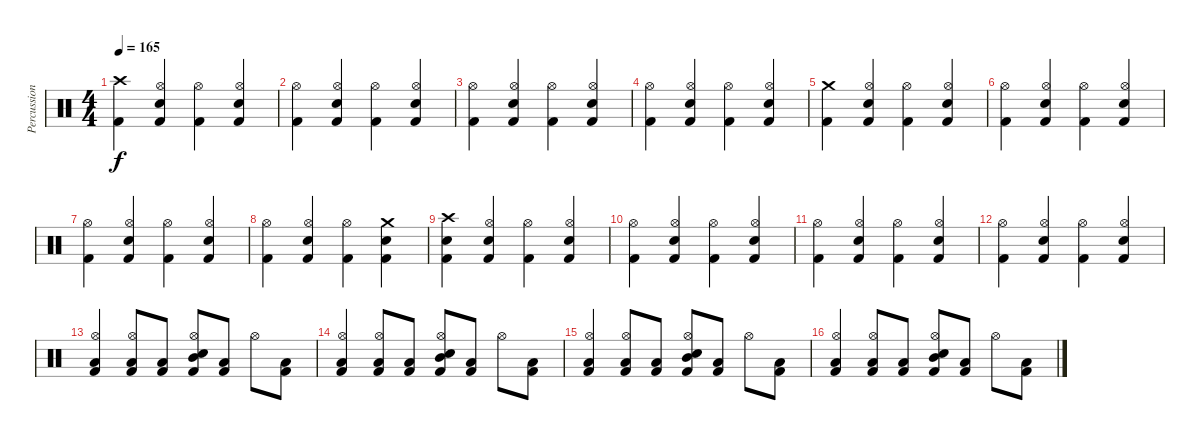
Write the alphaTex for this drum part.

\track ("Percussions" "Percussion") {instrument percussion}
\staff {score}
\articulation defaults
\ts (4 4)
\tempo 165
\clef neutral
\ks c
("Crash high (hit)" "Kick (hit) 2").4{dy f} ("Hi-Hat (open)" "Electric Snare (hit)" "Kick (hit) 2").4 ("Hi-Hat (open)" "Kick (hit) 2").4 ("Hi-Hat (open)" "Electric Snare (hit)" "Kick (hit) 2").4 |
("Hi-Hat (open)" "Kick (hit) 2").4 ("Hi-Hat (open)" "Electric Snare (hit)" "Kick (hit) 2").4 ("Hi-Hat (open)" "Kick (hit) 2").4 ("Hi-Hat (open)" "Electric Snare (hit)" "Kick (hit) 2").4 |
("Hi-Hat (open)" "Kick (hit) 2").4 ("Hi-Hat (open)" "Electric Snare (hit)" "Kick (hit) 2").4 ("Hi-Hat (open)" "Kick (hit) 2").4 ("Hi-Hat (open)" "Electric Snare (hit)" "Kick (hit) 2").4 |
("Hi-Hat (open)" "Kick (hit) 2").4 ("Hi-Hat (open)" "Electric Snare (hit)" "Kick (hit) 2").4 ("Hi-Hat (open)" "Kick (hit) 2").4 ("Hi-Hat (open)" "Electric Snare (hit)" "Kick (hit) 2").4 |
("Crash medium (hit)" "Kick (hit) 2").4 ("Hi-Hat (open)" "Electric Snare (hit)" "Kick (hit) 2").4 ("Hi-Hat (open)" "Kick (hit) 2").4 ("Hi-Hat (open)" "Electric Snare (hit)" "Kick (hit) 2").4 |
("Hi-Hat (open)" "Kick (hit) 2").4 ("Hi-Hat (open)" "Electric Snare (hit)" "Kick (hit) 2").4 ("Hi-Hat (open)" "Kick (hit) 2").4 ("Hi-Hat (open)" "Electric Snare (hit)" "Kick (hit) 2").4 |
("Hi-Hat (open)" "Kick (hit) 2").4 ("Hi-Hat (open)" "Electric Snare (hit)" "Kick (hit) 2").4 ("Hi-Hat (open)" "Kick (hit) 2").4 ("Hi-Hat (open)" "Electric Snare (hit)" "Kick (hit) 2").4 |
("Hi-Hat (open)" "Kick (hit) 2").4 ("Hi-Hat (open)" "Electric Snare (hit)" "Kick (hit) 2").4 ("Hi-Hat (open)" "Kick (hit) 2").4 ("Crash medium (hit)" "Electric Snare (hit)" "Kick (hit) 2").4 |
("Crash high (hit)" "Electric Snare (hit)" "Kick (hit) 2").4 ("Hi-Hat (open)" "Electric Snare (hit)" "Kick (hit) 2").4 ("Hi-Hat (open)" "Kick (hit) 2").4 ("Hi-Hat (open)" "Electric Snare (hit)" "Kick (hit) 2").4 |
("Hi-Hat (open)" "Kick (hit) 2").4 ("Hi-Hat (open)" "Electric Snare (hit)" "Kick (hit) 2").4 ("Hi-Hat (open)" "Kick (hit) 2").4 ("Hi-Hat (open)" "Electric Snare (hit)" "Kick (hit) 2").4 |
("Hi-Hat (open)" "Kick (hit) 2").4 ("Hi-Hat (open)" "Electric Snare (hit)" "Kick (hit) 2").4 ("Hi-Hat (open)" "Kick (hit) 2").4 ("Hi-Hat (open)" "Electric Snare (hit)" "Kick (hit) 2").4 |
("Hi-Hat (open)" "Kick (hit) 2").4 ("Hi-Hat (open)" "Electric Snare (hit)" "Kick (hit) 2").4 ("Hi-Hat (open)" "Kick (hit) 2").4 ("Hi-Hat (open)" "Electric Snare (hit)" "Kick (hit) 2").4 |
("Hi-Hat (open)" "Low Floor Tom (hit)" "Kick (hit) 2").4 ("Hi-Hat (open)" "Low Floor Tom (hit)" "Kick (hit) 2").8 ("Low Floor Tom (hit)" "Kick (hit) 2").8 ("Hi-Hat (open)" "Electric Snare (hit)" "Mid Tom (hit)" "Kick (hit) 2").8 ("Low Floor Tom (hit)" "Kick (hit) 2").8 "Hi-Hat (open)".8 ("Low Floor Tom (hit)" "Kick (hit) 2").8 |
("Hi-Hat (open)" "Low Floor Tom (hit)" "Kick (hit) 2").4 ("Hi-Hat (open)" "Low Floor Tom (hit)" "Kick (hit) 2").8 ("Low Floor Tom (hit)" "Kick (hit) 2").8 ("Hi-Hat (open)" "Electric Snare (hit)" "Mid Tom (hit)" "Kick (hit) 2").8 ("Low Floor Tom (hit)" "Kick (hit) 2").8 "Hi-Hat (open)".8 ("Low Floor Tom (hit)" "Kick (hit) 2").8 |
("Hi-Hat (open)" "Low Floor Tom (hit)" "Kick (hit) 2").4 ("Hi-Hat (open)" "Low Floor Tom (hit)" "Kick (hit) 2").8 ("Low Floor Tom (hit)" "Kick (hit) 2").8 ("Hi-Hat (open)" "Electric Snare (hit)" "Mid Tom (hit)" "Kick (hit) 2").8 ("Low Floor Tom (hit)" "Kick (hit) 2").8 "Hi-Hat (open)".8 ("Low Floor Tom (hit)" "Kick (hit) 2").8 |
("Hi-Hat (open)" "Low Floor Tom (hit)" "Kick (hit) 2").4 ("Hi-Hat (open)" "Low Floor Tom (hit)" "Kick (hit) 2").8 ("Low Floor Tom (hit)" "Kick (hit) 2").8 ("Hi-Hat (open)" "Electric Snare (hit)" "Mid Tom (hit)" "Kick (hit) 2").8 ("Low Floor Tom (hit)" "Kick (hit) 2").8 "Hi-Hat (open)".8 ("Low Floor Tom (hit)" "Kick (hit) 2").8
